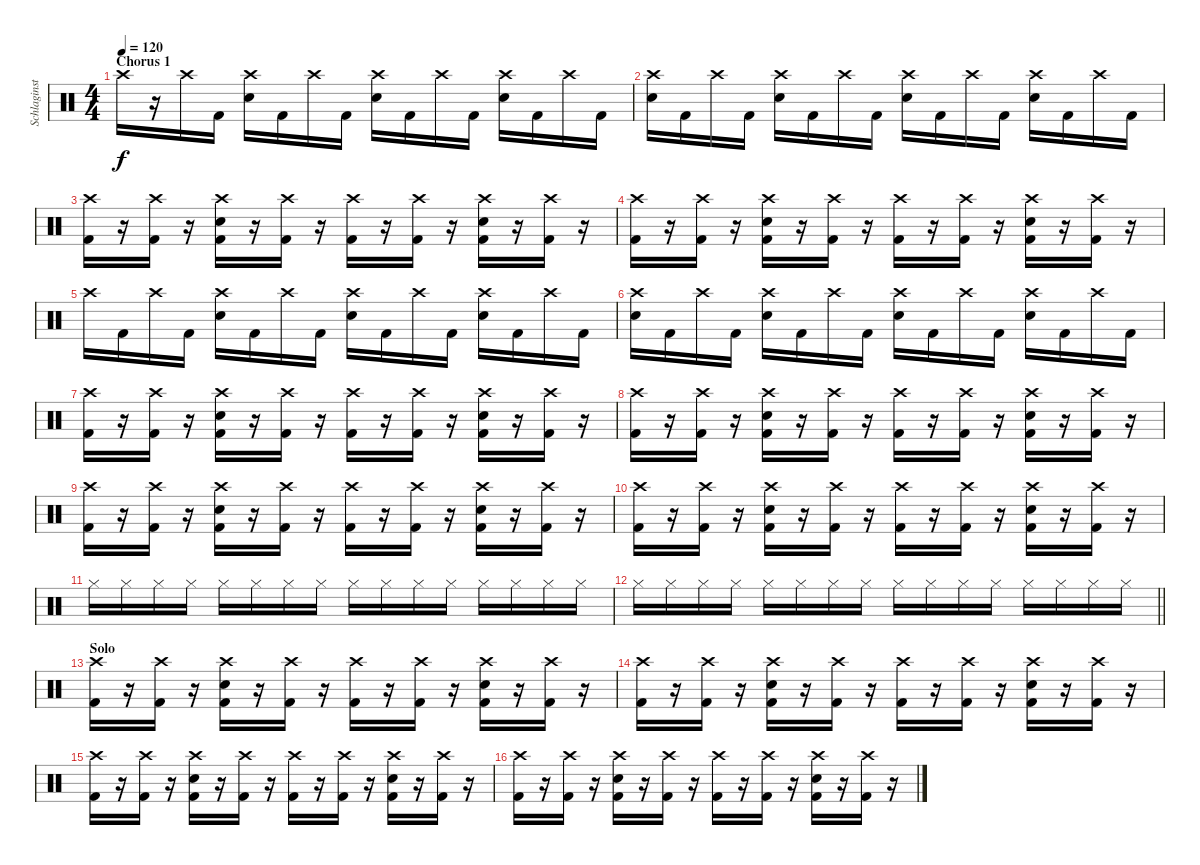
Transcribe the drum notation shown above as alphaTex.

\track ("Schlaginstrumente - Auswahl" "Schlaginst") {instrument percussion}
\staff {score}
\articulation defaults
\ts (4 4)
\section ("" "Chorus 1")
\tempo 120
\clef neutral
\ks c "Crash high (hit)".16{dy f}
r.16 "Crash high (hit)".16 "Kick (hit) 2".16 ("Snare (hit) 2" "Crash high (hit)").16 "Kick (hit) 2".16 "Crash high (hit)".16 "Kick (hit) 2".16 ("Snare (hit) 2" "Crash high (hit)").16 "Kick (hit) 2".16 "Crash high (hit)".16 "Kick (hit) 2".16 ("Snare (hit) 2" "Crash high (hit)").16 "Kick (hit) 2".16 "Crash high (hit)".16 "Kick (hit) 2".16 |
("Snare (hit) 2" "Crash high (hit)").16 "Kick (hit) 2".16 "Crash high (hit)".16 "Kick (hit) 2".16 ("Snare (hit) 2" "Crash high (hit)").16 "Kick (hit) 2".16 "Crash high (hit)".16 "Kick (hit) 2".16 ("Snare (hit) 2" "Crash high (hit)").16 "Kick (hit) 2".16 "Crash high (hit)".16 "Kick (hit) 2".16 ("Snare (hit) 2" "Crash high (hit)").16 "Kick (hit) 2".16 "Crash high (hit)".16 "Kick (hit) 2".16 |
("Kick (hit) 2" "Crash high (hit)").16 r.16 ("Kick (hit) 2" "Crash high (hit)").16 r.16 ("Snare (hit) 2" "Kick (hit) 2" "Crash high (hit)").16 r.16 ("Kick (hit) 2" "Crash high (hit)").16 r.16 ("Kick (hit) 2" "Crash high (hit)").16 r.16 ("Kick (hit) 2" "Crash high (hit)").16 r.16 ("Snare (hit) 2" "Kick (hit) 2" "Crash high (hit)").16 r.16 ("Kick (hit) 2" "Crash high (hit)").16 r.16 |
("Kick (hit) 2" "Crash high (hit)").16 r.16 ("Kick (hit) 2" "Crash high (hit)").16 r.16 ("Snare (hit) 2" "Kick (hit) 2" "Crash high (hit)").16 r.16 ("Kick (hit) 2" "Crash high (hit)").16 r.16 ("Kick (hit) 2" "Crash high (hit)").16 r.16 ("Kick (hit) 2" "Crash high (hit)").16 r.16 ("Snare (hit) 2" "Kick (hit) 2" "Crash high (hit)").16 r.16 ("Kick (hit) 2" "Crash high (hit)").16 r.16 |
"Crash high (hit)".16 "Kick (hit) 2".16 "Crash high (hit)".16 "Kick (hit) 2".16 ("Snare (hit) 2" "Crash high (hit)").16 "Kick (hit) 2".16 "Crash high (hit)".16 "Kick (hit) 2".16 ("Snare (hit) 2" "Crash high (hit)").16 "Kick (hit) 2".16 "Crash high (hit)".16 "Kick (hit) 2".16 ("Snare (hit) 2" "Crash high (hit)").16 "Kick (hit) 2".16 "Crash high (hit)".16 "Kick (hit) 2".16 |
("Snare (hit) 2" "Crash high (hit)").16 "Kick (hit) 2".16 "Crash high (hit)".16 "Kick (hit) 2".16 ("Snare (hit) 2" "Crash high (hit)").16 "Kick (hit) 2".16 "Crash high (hit)".16 "Kick (hit) 2".16 ("Snare (hit) 2" "Crash high (hit)").16 "Kick (hit) 2".16 "Crash high (hit)".16 "Kick (hit) 2".16 ("Snare (hit) 2" "Crash high (hit)").16 "Kick (hit) 2".16 "Crash high (hit)".16 "Kick (hit) 2".16 |
("Kick (hit) 2" "Crash high (hit)").16 r.16 ("Kick (hit) 2" "Crash high (hit)").16 r.16 ("Snare (hit) 2" "Kick (hit) 2" "Crash high (hit)").16 r.16 ("Kick (hit) 2" "Crash high (hit)").16 r.16 ("Kick (hit) 2" "Crash high (hit)").16 r.16 ("Kick (hit) 2" "Crash high (hit)").16 r.16 ("Snare (hit) 2" "Kick (hit) 2" "Crash high (hit)").16 r.16 ("Kick (hit) 2" "Crash high (hit)").16 r.16 |
("Kick (hit) 2" "Crash high (hit)").16 r.16 ("Kick (hit) 2" "Crash high (hit)").16 r.16 ("Snare (hit) 2" "Kick (hit) 2" "Crash high (hit)").16 r.16 ("Kick (hit) 2" "Crash high (hit)").16 r.16 ("Kick (hit) 2" "Crash high (hit)").16 r.16 ("Kick (hit) 2" "Crash high (hit)").16 r.16 ("Snare (hit) 2" "Kick (hit) 2" "Crash high (hit)").16 r.16 ("Kick (hit) 2" "Crash high (hit)").16 r.16 |
("Kick (hit) 2" "Crash high (hit)").16 r.16 ("Kick (hit) 2" "Crash high (hit)").16 r.16 ("Snare (hit) 2" "Kick (hit) 2" "Crash high (hit)").16 r.16 ("Kick (hit) 2" "Crash high (hit)").16 r.16 ("Kick (hit) 2" "Crash high (hit)").16 r.16 ("Kick (hit) 2" "Crash high (hit)").16 r.16 ("Snare (hit) 2" "Kick (hit) 2" "Crash high (hit)").16 r.16 ("Kick (hit) 2" "Crash high (hit)").16 r.16 |
("Kick (hit) 2" "Crash high (hit)").16 r.16 ("Kick (hit) 2" "Crash high (hit)").16 r.16 ("Snare (hit) 2" "Kick (hit) 2" "Crash high (hit)").16 r.16 ("Kick (hit) 2" "Crash high (hit)").16 r.16 ("Kick (hit) 2" "Crash high (hit)").16 r.16 ("Kick (hit) 2" "Crash high (hit)").16 r.16 ("Snare (hit) 2" "Kick (hit) 2" "Crash high (hit)").16 r.16 ("Kick (hit) 2" "Crash high (hit)").16 r.16 |
"Hi-Hat (closed)".16 "Hi-Hat (closed)".16 "Hi-Hat (closed)".16 "Hi-Hat (closed)".16 "Hi-Hat (closed)".16 "Hi-Hat (closed)".16 "Hi-Hat (closed)".16 "Hi-Hat (closed)".16 "Hi-Hat (closed)".16 "Hi-Hat (closed)".16 "Hi-Hat (closed)".16 "Hi-Hat (closed)".16 "Hi-Hat (closed)".16 "Hi-Hat (closed)".16 "Hi-Hat (closed)".16 "Hi-Hat (closed)".16 |
\barLineRight lightlight "Hi-Hat (closed)".16 "Hi-Hat (closed)".16 "Hi-Hat (closed)".16 "Hi-Hat (closed)".16 "Hi-Hat (closed)".16 "Hi-Hat (closed)".16 "Hi-Hat (closed)".16 "Hi-Hat (closed)".16 "Hi-Hat (closed)".16 "Hi-Hat (closed)".16 "Hi-Hat (closed)".16 "Hi-Hat (closed)".16 "Hi-Hat (closed)".16 "Hi-Hat (closed)".16 "Hi-Hat (closed)".16 "Hi-Hat (closed)".16
|
\section ("" "Solo")
("Kick (hit) 2" "Crash high (hit)").16 r.16 ("Kick (hit) 2" "Crash high (hit)").16 r.16 ("Snare (hit) 2" "Kick (hit) 2" "Crash high (hit)").16 r.16 ("Kick (hit) 2" "Crash high (hit)").16 r.16 ("Kick (hit) 2" "Crash high (hit)").16 r.16 ("Kick (hit) 2" "Crash high (hit)").16 r.16 ("Snare (hit) 2" "Kick (hit) 2" "Crash high (hit)").16 r.16 ("Kick (hit) 2" "Crash high (hit)").16 r.16 |
("Kick (hit) 2" "Crash high (hit)").16 r.16 ("Kick (hit) 2" "Crash high (hit)").16 r.16 ("Snare (hit) 2" "Kick (hit) 2" "Crash high (hit)").16 r.16 ("Kick (hit) 2" "Crash high (hit)").16 r.16 ("Kick (hit) 2" "Crash high (hit)").16 r.16 ("Kick (hit) 2" "Crash high (hit)").16 r.16 ("Snare (hit) 2" "Kick (hit) 2" "Crash high (hit)").16 r.16 ("Kick (hit) 2" "Crash high (hit)").16 r.16 |
("Kick (hit) 2" "Crash high (hit)").16 r.16 ("Kick (hit) 2" "Crash high (hit)").16 r.16 ("Snare (hit) 2" "Kick (hit) 2" "Crash high (hit)").16 r.16 ("Kick (hit) 2" "Crash high (hit)").16 r.16 ("Kick (hit) 2" "Crash high (hit)").16 r.16 ("Kick (hit) 2" "Crash high (hit)").16 r.16 ("Snare (hit) 2" "Kick (hit) 2" "Crash high (hit)").16 r.16 ("Kick (hit) 2" "Crash high (hit)").16 r.16 |
("Kick (hit) 2" "Crash high (hit)").16 r.16 ("Kick (hit) 2" "Crash high (hit)").16 r.16 ("Snare (hit) 2" "Kick (hit) 2" "Crash high (hit)").16 r.16 ("Kick (hit) 2" "Crash high (hit)").16 r.16 ("Kick (hit) 2" "Crash high (hit)").16 r.16 ("Kick (hit) 2" "Crash high (hit)").16 r.16 ("Snare (hit) 2" "Kick (hit) 2" "Crash high (hit)").16 r.16 ("Kick (hit) 2" "Crash high (hit)").16 r.16
